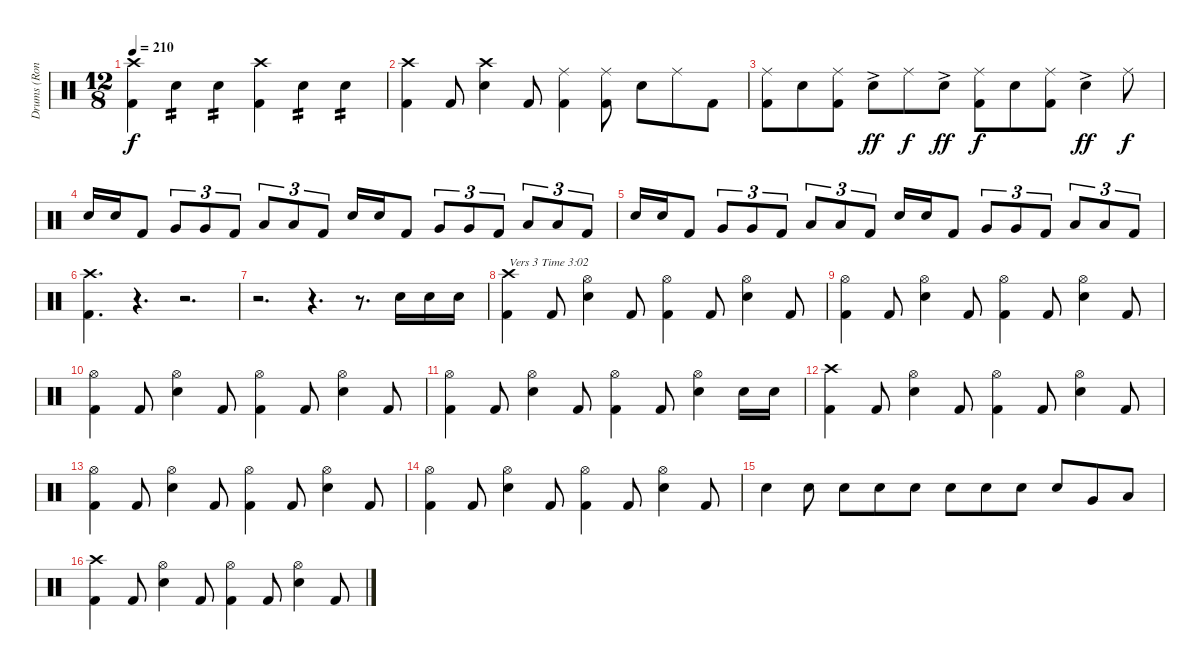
\track ("Drums (Ronny)" "Drums (Ron") {instrument percussion}
\staff {score}
\articulation defaults
\ts (12 8)
\tempo 210
\clef neutral
\ks c
("Crash high (hit)" "Kick (hit) 2").4{dy f} "Snare (hit) 2".4{tp 2} "Snare (hit) 2".4{tp 2} ("Crash high (hit)" "Kick (hit) 2").4 "Snare (hit) 2".4{tp 2} "Snare (hit) 2".4{tp 2} |
("Crash high (hit)" "Kick (hit) 2").4 "Kick (hit) 2".8 ("Crash high (hit)" "Snare (hit) 2").4 "Kick (hit) 2".8 ("Ride (middle)" "Kick (hit) 2").4 ("Ride (middle)" "Kick (hit) 2").8 "Snare (hit) 2".8 "Ride (middle)".8 "Kick (hit) 2".8 |
("Ride (middle)" "Kick (hit) 2").8 "Snare (hit) 2".8 ("Ride (middle)" "Kick (hit) 2").8 "Snare (hit) 2"{ac}.8{dy ff} "Ride (middle)".8{dy f} "Snare (hit) 2"{ac}.8{dy ff} ("Ride (middle)" "Kick (hit) 2").8{dy f} "Snare (hit) 2".8 ("Ride (middle)" "Kick (hit) 2").8 "Snare (hit) 2"{ac}.4{dy ff} "Ride (middle)".8{dy f} |
"Snare (hit) 2".16 "Snare (hit) 2".16 "Kick (hit) 2".8 "Very Low Tom (hit)".8{tu (3 2)} "Very Low Tom (hit)".8{tu (3 2)} "Kick (hit) 2".8{tu (3 2)} "Low Floor Tom (hit)".8{tu (3 2)} "Low Floor Tom (hit)".8{tu (3 2)} "Kick (hit) 2".8{tu (3 2)} "Snare (hit) 2".16 "Snare (hit) 2".16 "Kick (hit) 2".8 "Very Low Tom (hit)".8{tu (3 2)} "Very Low Tom (hit)".8{tu (3 2)} "Kick (hit) 2".8{tu (3 2)} "Low Floor Tom (hit)".8{tu (3 2)} "Low Floor Tom (hit)".8{tu (3 2)} "Kick (hit) 2".8{tu (3 2)} |
"Snare (hit) 2".16 "Snare (hit) 2".16 "Kick (hit) 2".8 "Very Low Tom (hit)".8{tu (3 2)} "Very Low Tom (hit)".8{tu (3 2)} "Kick (hit) 2".8{tu (3 2)} "Low Floor Tom (hit)".8{tu (3 2)} "Low Floor Tom (hit)".8{tu (3 2)} "Kick (hit) 2".8{tu (3 2)} "Snare (hit) 2".16 "Snare (hit) 2".16 "Kick (hit) 2".8 "Very Low Tom (hit)".8{tu (3 2)} "Very Low Tom (hit)".8{tu (3 2)} "Kick (hit) 2".8{tu (3 2)} "Low Floor Tom (hit)".8{tu (3 2)} "Low Floor Tom (hit)".8{tu (3 2)} "Kick (hit) 2".8{tu (3 2)} |
("Crash high (hit)" "Kick (hit) 2").4{d} r.4{d} r.2{d} |
r.2{d} r.4{d} r.8{d} "Snare (hit) 2".16 "Snare (hit) 2".16 "Snare (hit) 2".16 |
("Crash high (hit)" "Kick (hit) 2").4{txt "Vers 3 Time 3:02"} "Kick (hit) 2".8 ("Hi-Hat (open)" "Snare (hit) 2").4 "Kick (hit) 2".8 ("Hi-Hat (open)" "Kick (hit) 2").4 "Kick (hit) 2".8 ("Hi-Hat (open)" "Snare (hit) 2").4 "Kick (hit) 2".8 |
("Hi-Hat (open)" "Kick (hit) 2").4 "Kick (hit) 2".8 ("Hi-Hat (open)" "Snare (hit) 2").4 "Kick (hit) 2".8 ("Hi-Hat (open)" "Kick (hit) 2").4 "Kick (hit) 2".8 ("Hi-Hat (open)" "Snare (hit) 2").4 "Kick (hit) 2".8 |
("Hi-Hat (open)" "Kick (hit) 2").4 "Kick (hit) 2".8 ("Hi-Hat (open)" "Snare (hit) 2").4 "Kick (hit) 2".8 ("Hi-Hat (open)" "Kick (hit) 2").4 "Kick (hit) 2".8 ("Hi-Hat (open)" "Snare (hit) 2").4 "Kick (hit) 2".8 |
("Hi-Hat (open)" "Kick (hit) 2").4 "Kick (hit) 2".8 ("Hi-Hat (open)" "Snare (hit) 2").4 "Kick (hit) 2".8 ("Hi-Hat (open)" "Kick (hit) 2").4 "Kick (hit) 2".8 ("Hi-Hat (open)" "Snare (hit) 2").4 "Snare (hit) 2".16 "Snare (hit) 2".16 |
("Crash high (hit)" "Kick (hit) 2").4 "Kick (hit) 2".8 ("Hi-Hat (open)" "Snare (hit) 2").4 "Kick (hit) 2".8 ("Hi-Hat (open)" "Kick (hit) 2").4 "Kick (hit) 2".8 ("Hi-Hat (open)" "Snare (hit) 2").4 "Kick (hit) 2".8 |
("Hi-Hat (open)" "Kick (hit) 2").4 "Kick (hit) 2".8 ("Hi-Hat (open)" "Snare (hit) 2").4 "Kick (hit) 2".8 ("Hi-Hat (open)" "Kick (hit) 2").4 "Kick (hit) 2".8 ("Hi-Hat (open)" "Snare (hit) 2").4 "Kick (hit) 2".8 |
("Hi-Hat (open)" "Kick (hit) 2").4 "Kick (hit) 2".8 ("Hi-Hat (open)" "Snare (hit) 2").4 "Kick (hit) 2".8 ("Hi-Hat (open)" "Kick (hit) 2").4 "Kick (hit) 2".8 ("Hi-Hat (open)" "Snare (hit) 2").4 "Kick (hit) 2".8 |
"Snare (hit) 2".4 "Snare (hit) 2".8 "Snare (hit) 2".8 "Snare (hit) 2".8 "Snare (hit) 2".8 "Snare (hit) 2".8 "Snare (hit) 2".8 "Snare (hit) 2".8 "Snare (hit) 2".8 "Very Low Tom (hit)".8 "Low Floor Tom (hit)".8 |
("Crash high (hit)" "Kick (hit) 2").4 "Kick (hit) 2".8 ("Hi-Hat (open)" "Snare (hit) 2").4 "Kick (hit) 2".8 ("Hi-Hat (open)" "Kick (hit) 2").4 "Kick (hit) 2".8 ("Hi-Hat (open)" "Snare (hit) 2").4 "Kick (hit) 2".8
